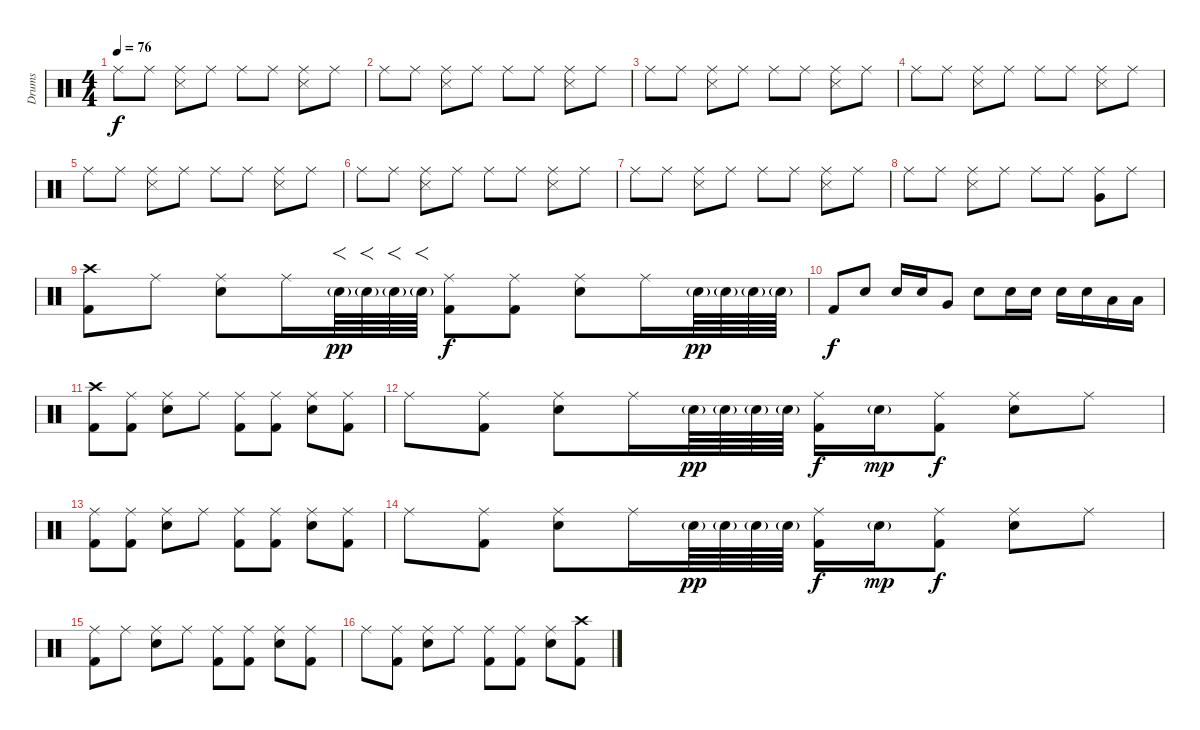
\track ("Drums" "Drums") {instrument percussion}
\staff {score}
\articulation defaults
\ts (4 4)
\tempo 76
\clef neutral
\ks c "Ride (middle)".8{dy f} "Ride (middle)".8
("Ride (middle)" "Snare (side stick) 3").8 "Ride (middle)".8 "Ride (middle)".8 "Ride (middle)".8 ("Ride (middle)" "Snare (side stick) 3").8 "Ride (middle)".8 |
"Ride (middle)".8 "Ride (middle)".8 ("Ride (middle)" "Snare (side stick) 3").8 "Ride (middle)".8 "Ride (middle)".8 "Ride (middle)".8 ("Ride (middle)" "Snare (side stick) 3").8 "Ride (middle)".8 |
"Ride (middle)".8 "Ride (middle)".8 ("Ride (middle)" "Snare (side stick) 3").8 "Ride (middle)".8 "Ride (middle)".8 "Ride (middle)".8 ("Ride (middle)" "Snare (side stick) 3").8 "Ride (middle)".8 |
"Ride (middle)".8 "Ride (middle)".8 ("Ride (middle)" "Snare (side stick) 3").8 "Ride (middle)".8 "Ride (middle)".8 "Ride (middle)".8 ("Ride (middle)" "Snare (side stick) 3").8 "Ride (middle)".8 |
"Ride (middle)".8 "Ride (middle)".8 ("Ride (middle)" "Snare (side stick) 3").8 "Ride (middle)".8 "Ride (middle)".8 "Ride (middle)".8 ("Ride (middle)" "Snare (side stick) 3").8 "Ride (middle)".8 |
"Ride (middle)".8 "Ride (middle)".8 ("Ride (middle)" "Snare (side stick) 3").8 "Ride (middle)".8 "Ride (middle)".8 "Ride (middle)".8 ("Ride (middle)" "Snare (side stick) 3").8 "Ride (middle)".8 |
"Ride (middle)".8 "Ride (middle)".8 ("Ride (middle)" "Snare (side stick) 3").8 "Ride (middle)".8 "Ride (middle)".8 "Ride (middle)".8 ("Ride (middle)" "Snare (side stick) 3").8 "Ride (middle)".8 |
"Ride (middle)".8 "Ride (middle)".8 ("Ride (middle)" "Snare (side stick) 3").8 "Ride (middle)".8 "Ride (middle)".8 "Ride (middle)".8 ("Ride (middle)" "Very Low Tom (hit)").8 "Ride (middle)".8 |
("Crash high (hit)" "Kick (hit) 2").8 "Ride (middle)".8 ("Ride (middle)" "Snare (hit) 2").8 "Ride (middle)".16 "Snare (hit) 2"{g}.64{f dy pp} "Snare (hit) 2"{g}.64{f} "Snare (hit) 2"{g}.64{f} "Snare (hit) 2"{g}.64{f} ("Ride (middle)" "Kick (hit) 2").8{dy f} ("Ride (middle)" "Kick (hit) 2").8 ("Ride (middle)" "Snare (hit) 2").8 "Ride (middle)".16 "Snare (hit) 2"{g}.64{dy pp} "Snare (hit) 2"{g}.64 "Snare (hit) 2"{g}.64 "Snare (hit) 2"{g}.64 |
"Kick (hit) 2".8{dy f} "Snare (hit) 2".8 "Snare (hit) 2".16 "Snare (hit) 2".16 "Very Low Tom (hit)".8 "Snare (hit) 2".8 "Snare (hit) 2".16 "Snare (hit) 2".16 "Snare (hit) 2".16 "Snare (hit) 2".16 "Low Tom (hit)".16 "Low Tom (hit)".16 |
("Crash high (hit)" "Kick (hit) 2").8 ("Ride (middle)" "Kick (hit) 2").8 ("Ride (middle)" "Snare (hit) 2").8 "Ride (middle)".8 ("Ride (middle)" "Kick (hit) 2").8 ("Ride (middle)" "Kick (hit) 2").8 ("Ride (middle)" "Snare (hit) 2").8 ("Ride (middle)" "Kick (hit) 2").8 |
"Ride (middle)".8 ("Ride (middle)" "Kick (hit) 2").8 ("Ride (middle)" "Snare (hit) 2").8 "Ride (middle)".16 "Snare (hit) 2"{g}.64{dy pp} "Snare (hit) 2"{g}.64 "Snare (hit) 2"{g}.64 "Snare (hit) 2"{g}.64 ("Ride (middle)" "Kick (hit) 2").16{dy f} "Snare (hit) 2"{g}.16{dy mp} ("Ride (middle)" "Kick (hit) 2").8{dy f} ("Ride (middle)" "Snare (hit) 2").8 "Ride (middle)".8 |
("Ride (middle)" "Kick (hit) 2").8 ("Ride (middle)" "Kick (hit) 2").8 ("Ride (middle)" "Snare (hit) 2").8 "Ride (middle)".8 ("Ride (middle)" "Kick (hit) 2").8 ("Ride (middle)" "Kick (hit) 2").8 ("Ride (middle)" "Snare (hit) 2").8 ("Ride (middle)" "Kick (hit) 2").8 |
"Ride (middle)".8 ("Ride (middle)" "Kick (hit) 2").8 ("Ride (middle)" "Snare (hit) 2").8 "Ride (middle)".16 "Snare (hit) 2"{g}.64{dy pp} "Snare (hit) 2"{g}.64 "Snare (hit) 2"{g}.64 "Snare (hit) 2"{g}.64 ("Ride (middle)" "Kick (hit) 2").16{dy f} "Snare (hit) 2"{g}.16{dy mp} ("Ride (middle)" "Kick (hit) 2").8{dy f} ("Ride (middle)" "Snare (hit) 2").8 "Ride (middle)".8 |
("Ride (middle)" "Kick (hit) 2").8 "Ride (middle)".8 ("Ride (middle)" "Snare (hit) 2").8 "Ride (middle)".8 ("Ride (middle)" "Kick (hit) 2").8 ("Ride (middle)" "Kick (hit) 2").8 ("Ride (middle)" "Snare (hit) 2").8 ("Ride (middle)" "Kick (hit) 2").8 |
"Ride (middle)".8 ("Ride (middle)" "Kick (hit) 2").8 ("Ride (middle)" "Snare (hit) 2").8 "Ride (middle)".8 ("Ride (middle)" "Kick (hit) 2").8 ("Ride (middle)" "Kick (hit) 2").8 ("Ride (middle)" "Snare (hit) 2").8 ("Crash high (hit)" "Kick (hit) 2").8
